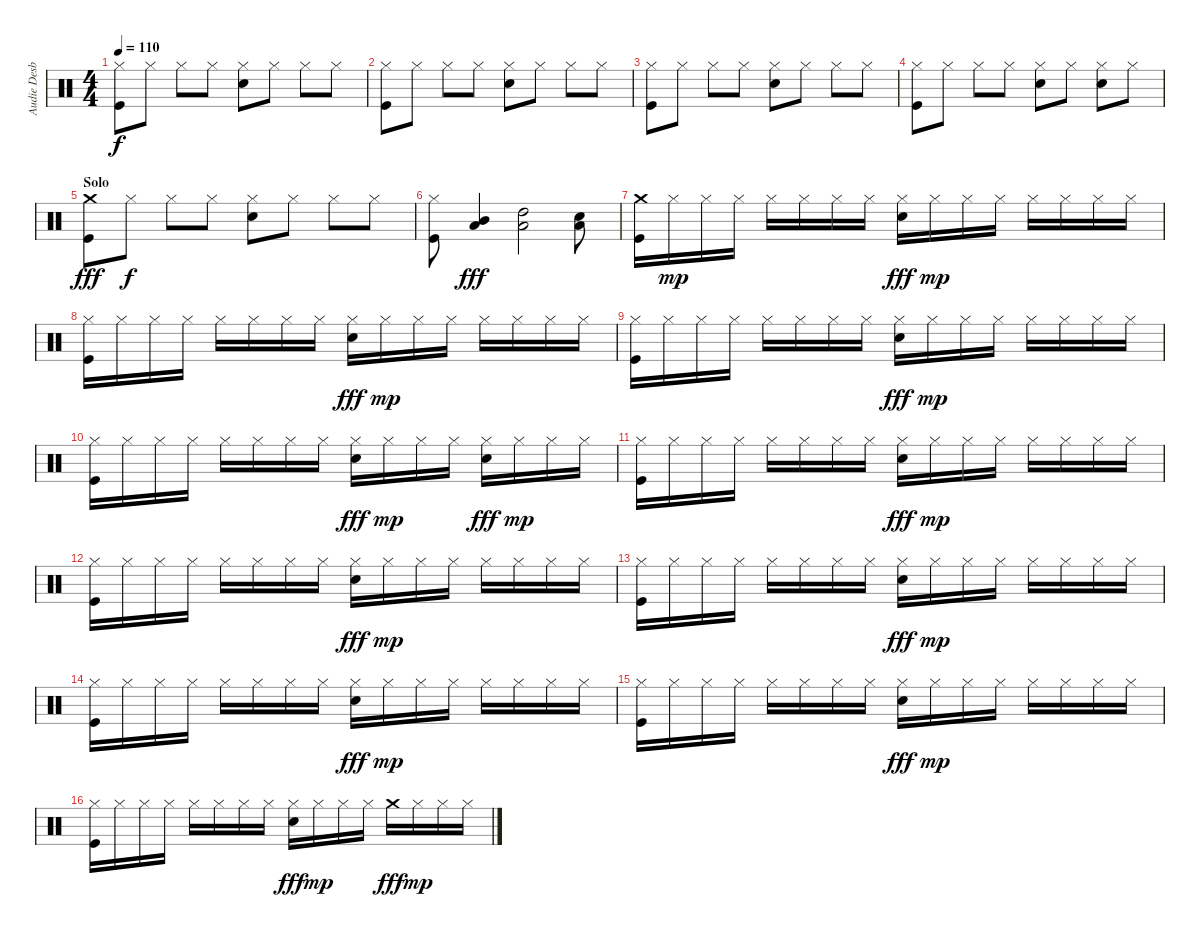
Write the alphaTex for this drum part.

\track ("Audie Desbrow" "Audie Desb") {instrument percussion}
\staff {score}
\articulation defaults
\ts (4 4)
\tempo 110
\clef neutral
\ks c
("Hi-Hat (closed)" "Kick (hit)").8{dy f} "Hi-Hat (closed)".8 "Hi-Hat (closed)".8 "Hi-Hat (closed)".8 ("Hi-Hat (closed)" "Snare (hit) 2").8 "Hi-Hat (closed)".8 "Hi-Hat (closed)".8 "Hi-Hat (closed)".8 |
("Hi-Hat (closed)" "Kick (hit)").8 "Hi-Hat (closed)".8 "Hi-Hat (closed)".8 "Hi-Hat (closed)".8 ("Hi-Hat (closed)" "Snare (hit) 2").8 "Hi-Hat (closed)".8 "Hi-Hat (closed)".8 "Hi-Hat (closed)".8 |
("Hi-Hat (closed)" "Kick (hit)").8 "Hi-Hat (closed)".8 "Hi-Hat (closed)".8 "Hi-Hat (closed)".8 ("Hi-Hat (closed)" "Snare (hit) 2").8 "Hi-Hat (closed)".8 "Hi-Hat (closed)".8 "Hi-Hat (closed)".8 |
("Hi-Hat (closed)" "Kick (hit)").8 "Hi-Hat (closed)".8 "Hi-Hat (closed)".8 "Hi-Hat (closed)".8 ("Hi-Hat (closed)" "Snare (hit) 2").8 "Hi-Hat (closed)".8 ("Hi-Hat (closed)" "Snare (hit) 2").8 "Hi-Hat (closed)".8 |
\section ("" "Solo")
("Crash medium (hit)" "Kick (hit)").8{dy fff} "Hi-Hat (closed)".8{dy f} "Hi-Hat (closed)".8 "Hi-Hat (closed)".8 ("Hi-Hat (closed)" "Snare (hit) 2").8 "Hi-Hat (closed)".8 "Hi-Hat (closed)".8 "Hi-Hat (closed)".8 |
("Hi-Hat (closed)" "Kick (hit)").8 ("Mid Tom (hit)" "Low Tom (hit)").4{dy fff} ("High Tom (hit)" "Low Tom (hit)").2 ("Snare (hit) 2" "Low Tom (hit)").8 |
("Crash medium (hit)" "Kick (hit)").16 "Hi-Hat (closed)".16{dy mp} "Hi-Hat (closed)".16 "Hi-Hat (closed)".16 "Hi-Hat (closed)".16 "Hi-Hat (closed)".16 "Hi-Hat (closed)".16 "Hi-Hat (closed)".16 ("Hi-Hat (closed)" "Snare (hit) 2").16{dy fff} "Hi-Hat (closed)".16{dy mp} "Hi-Hat (closed)".16 "Hi-Hat (closed)".16 "Hi-Hat (closed)".16 "Hi-Hat (closed)".16 "Hi-Hat (closed)".16 "Hi-Hat (closed)".16 |
("Hi-Hat (closed)" "Kick (hit)").16 "Hi-Hat (closed)".16 "Hi-Hat (closed)".16 "Hi-Hat (closed)".16 "Hi-Hat (closed)".16 "Hi-Hat (closed)".16 "Hi-Hat (closed)".16 "Hi-Hat (closed)".16 ("Hi-Hat (closed)" "Snare (hit) 2").16{dy fff} "Hi-Hat (closed)".16{dy mp} "Hi-Hat (closed)".16 "Hi-Hat (closed)".16 "Hi-Hat (closed)".16 "Hi-Hat (closed)".16 "Hi-Hat (closed)".16 "Hi-Hat (closed)".16 |
("Hi-Hat (closed)" "Kick (hit)").16 "Hi-Hat (closed)".16 "Hi-Hat (closed)".16 "Hi-Hat (closed)".16 "Hi-Hat (closed)".16 "Hi-Hat (closed)".16 "Hi-Hat (closed)".16 "Hi-Hat (closed)".16 ("Hi-Hat (closed)" "Snare (hit) 2").16{dy fff} "Hi-Hat (closed)".16{dy mp} "Hi-Hat (closed)".16 "Hi-Hat (closed)".16 "Hi-Hat (closed)".16 "Hi-Hat (closed)".16 "Hi-Hat (closed)".16 "Hi-Hat (closed)".16 |
("Hi-Hat (closed)" "Kick (hit)").16 "Hi-Hat (closed)".16 "Hi-Hat (closed)".16 "Hi-Hat (closed)".16 "Hi-Hat (closed)".16 "Hi-Hat (closed)".16 "Hi-Hat (closed)".16 "Hi-Hat (closed)".16 ("Hi-Hat (closed)" "Snare (hit) 2").16{dy fff} "Hi-Hat (closed)".16{dy mp} "Hi-Hat (closed)".16 "Hi-Hat (closed)".16 ("Hi-Hat (closed)" "Snare (hit) 2").16{dy fff} "Hi-Hat (closed)".16{dy mp} "Hi-Hat (closed)".16 "Hi-Hat (closed)".16 |
("Hi-Hat (closed)" "Kick (hit)").16 "Hi-Hat (closed)".16 "Hi-Hat (closed)".16 "Hi-Hat (closed)".16 "Hi-Hat (closed)".16 "Hi-Hat (closed)".16 "Hi-Hat (closed)".16 "Hi-Hat (closed)".16 ("Hi-Hat (closed)" "Snare (hit) 2").16{dy fff} "Hi-Hat (closed)".16{dy mp} "Hi-Hat (closed)".16 "Hi-Hat (closed)".16 "Hi-Hat (closed)".16 "Hi-Hat (closed)".16 "Hi-Hat (closed)".16 "Hi-Hat (closed)".16 |
("Hi-Hat (closed)" "Kick (hit)").16 "Hi-Hat (closed)".16 "Hi-Hat (closed)".16 "Hi-Hat (closed)".16 "Hi-Hat (closed)".16 "Hi-Hat (closed)".16 "Hi-Hat (closed)".16 "Hi-Hat (closed)".16 ("Hi-Hat (closed)" "Snare (hit) 2").16{dy fff} "Hi-Hat (closed)".16{dy mp} "Hi-Hat (closed)".16 "Hi-Hat (closed)".16 "Hi-Hat (closed)".16 "Hi-Hat (closed)".16 "Hi-Hat (closed)".16 "Hi-Hat (closed)".16 |
("Hi-Hat (closed)" "Kick (hit)").16 "Hi-Hat (closed)".16 "Hi-Hat (closed)".16 "Hi-Hat (closed)".16 "Hi-Hat (closed)".16 "Hi-Hat (closed)".16 "Hi-Hat (closed)".16 "Hi-Hat (closed)".16 ("Hi-Hat (closed)" "Snare (hit) 2").16{dy fff} "Hi-Hat (closed)".16{dy mp} "Hi-Hat (closed)".16 "Hi-Hat (closed)".16 "Hi-Hat (closed)".16 "Hi-Hat (closed)".16 "Hi-Hat (closed)".16 "Hi-Hat (closed)".16 |
("Hi-Hat (closed)" "Kick (hit)").16 "Hi-Hat (closed)".16 "Hi-Hat (closed)".16 "Hi-Hat (closed)".16 "Hi-Hat (closed)".16 "Hi-Hat (closed)".16 "Hi-Hat (closed)".16 "Hi-Hat (closed)".16 ("Hi-Hat (closed)" "Snare (hit) 2").16{dy fff} "Hi-Hat (closed)".16{dy mp} "Hi-Hat (closed)".16 "Hi-Hat (closed)".16 "Hi-Hat (closed)".16 "Hi-Hat (closed)".16 "Hi-Hat (closed)".16 "Hi-Hat (closed)".16 |
("Hi-Hat (closed)" "Kick (hit)").16 "Hi-Hat (closed)".16 "Hi-Hat (closed)".16 "Hi-Hat (closed)".16 "Hi-Hat (closed)".16 "Hi-Hat (closed)".16 "Hi-Hat (closed)".16 "Hi-Hat (closed)".16 ("Hi-Hat (closed)" "Snare (hit) 2").16{dy fff} "Hi-Hat (closed)".16{dy mp} "Hi-Hat (closed)".16 "Hi-Hat (closed)".16 "Hi-Hat (closed)".16 "Hi-Hat (closed)".16 "Hi-Hat (closed)".16 "Hi-Hat (closed)".16 |
("Hi-Hat (closed)" "Kick (hit)").16 "Hi-Hat (closed)".16 "Hi-Hat (closed)".16 "Hi-Hat (closed)".16 "Hi-Hat (closed)".16 "Hi-Hat (closed)".16 "Hi-Hat (closed)".16 "Hi-Hat (closed)".16 ("Hi-Hat (closed)" "Snare (hit) 2").16{dy fff} "Hi-Hat (closed)".16{dy mp} "Hi-Hat (closed)".16 "Hi-Hat (closed)".16 "Crash medium (hit)".16{dy fff} "Hi-Hat (closed)".16{dy mp} "Hi-Hat (closed)".16 "Hi-Hat (closed)".16
